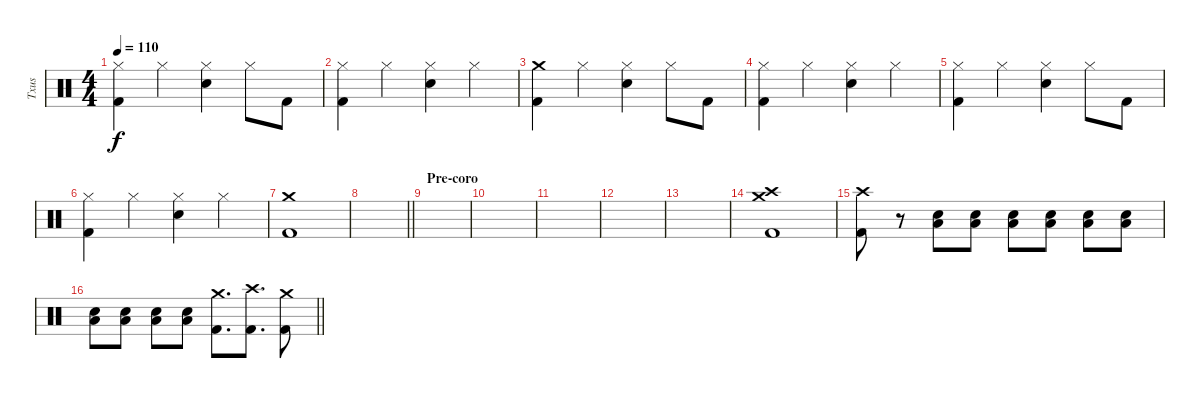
\track ("Txus" "Txus") {instrument percussion}
\staff {score}
\articulation defaults
\ts (4 4)
\tempo 110
\clef neutral
\ks c
("Hi-Hat (closed)" "Kick (hit) 2").4{dy f} "Hi-Hat (closed)".4 ("Hi-Hat (closed)" "Electric Snare (hit)").4 "Hi-Hat (closed)".8 "Kick (hit) 2".8 |
("Hi-Hat (closed)" "Kick (hit) 2").4 "Hi-Hat (closed)".4 ("Hi-Hat (closed)" "Electric Snare (hit)").4 "Hi-Hat (closed)".4 |
("Crash medium (hit)" "Kick (hit) 2").4 "Hi-Hat (closed)".4 ("Hi-Hat (closed)" "Electric Snare (hit)").4 "Hi-Hat (closed)".8 "Kick (hit) 2".8 |
("Hi-Hat (closed)" "Kick (hit) 2").4 "Hi-Hat (closed)".4 ("Hi-Hat (closed)" "Electric Snare (hit)").4 "Hi-Hat (closed)".4 |
("Hi-Hat (closed)" "Kick (hit) 2").4 "Hi-Hat (closed)".4 ("Hi-Hat (closed)" "Electric Snare (hit)").4 "Hi-Hat (closed)".8 "Kick (hit) 2".8 |
("Hi-Hat (closed)" "Kick (hit) 2").4 "Hi-Hat (closed)".4 ("Hi-Hat (closed)" "Electric Snare (hit)").4 "Hi-Hat (closed)".4 |
("Crash medium (hit)" "Kick (hit) 2").1 |
\barLineRight lightlight
|
\section ("" "Pre-coro")
|
|
|
|
|
("Crash medium (hit)" "Crash high (hit)" "Kick (hit) 2").1 |
("Crash high (hit)" "Kick (hit) 2").8 r.8{volume 0} ("Electric Snare (hit)" "Low Floor Tom (hit)").8{volume 13} ("Electric Snare (hit)" "Low Floor Tom (hit)").8 ("Electric Snare (hit)" "Low Floor Tom (hit)").8 ("Electric Snare (hit)" "Low Floor Tom (hit)").8 ("Electric Snare (hit)" "Low Floor Tom (hit)").8 ("Electric Snare (hit)" "Low Floor Tom (hit)").8 |
\barLineRight lightlight
("Electric Snare (hit)" "Low Floor Tom (hit)").8 ("Electric Snare (hit)" "Low Floor Tom (hit)").8 ("Electric Snare (hit)" "Low Floor Tom (hit)").8 ("Electric Snare (hit)" "Low Floor Tom (hit)").8 ("Crash medium (hit)" "Kick (hit) 2").8{d} ("Crash high (hit)" "Kick (hit) 2").8{d} ("Crash medium (hit)" "Kick (hit) 2").8
